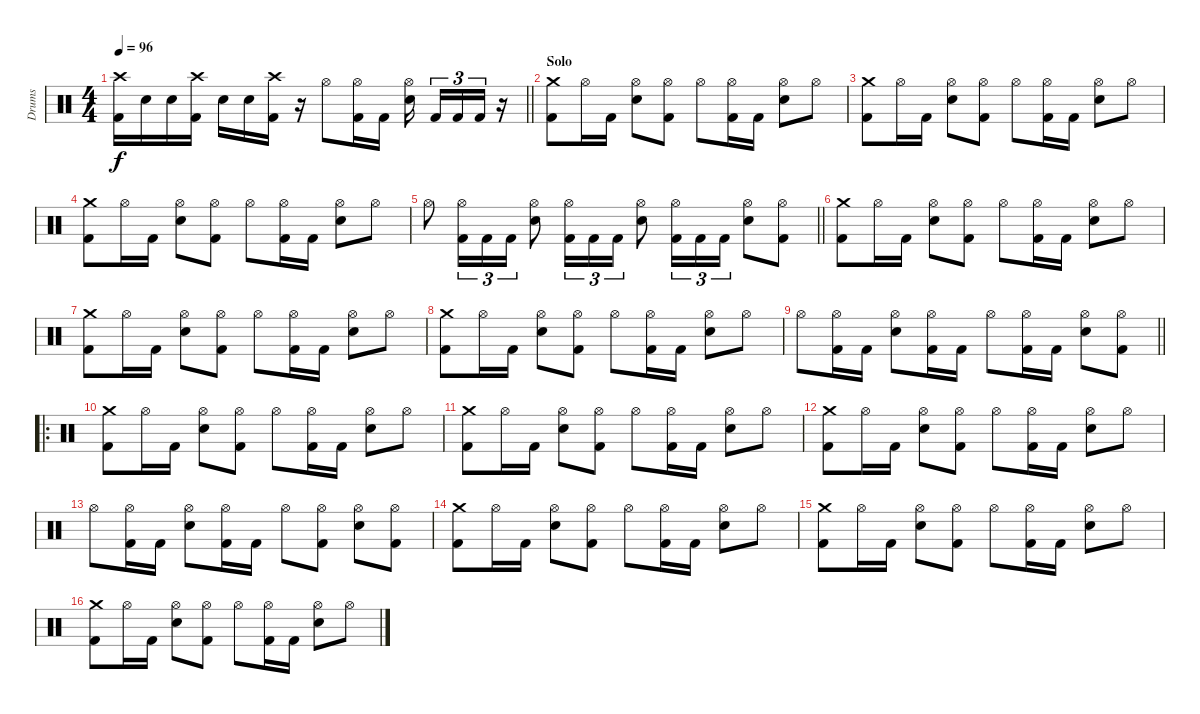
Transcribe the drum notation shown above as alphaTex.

\track ("Drums" "Drums") {instrument percussion}
\staff {score}
\articulation defaults
\ts (4 4)
\tempo 96
\clef neutral
\barLineRight lightlight
\ks c
("Crash high (hit)" "Kick (hit) 2").16{dy f} "Electric Snare (hit)".16 "Electric Snare (hit)".16 ("Crash high (hit)" "Kick (hit) 2").16 "Electric Snare (hit)".16 "Electric Snare (hit)".16 ("Crash high (hit)" "Kick (hit) 2").16 r.16 "Hi-Hat (open)".8 ("Hi-Hat (open)" "Kick (hit) 2").16 "Kick (hit) 2".16 ("Hi-Hat (open)" "Electric Snare (hit)").16{beam splitsecondary} "Kick (hit) 2".16{tu (3 2)} "Kick (hit) 2".16{tu (3 2)} "Kick (hit) 2".16{tu (3 2)} r.16 |
\section ("" "Solo")
("Crash medium (hit)" "Kick (hit) 2").8 "Hi-Hat (open)".16 "Kick (hit) 2".16 ("Hi-Hat (open)" "Electric Snare (hit)").8 ("Hi-Hat (open)" "Kick (hit) 2").8 "Hi-Hat (open)".8 ("Hi-Hat (open)" "Kick (hit) 2").16 "Kick (hit) 2".16 ("Hi-Hat (open)" "Electric Snare (hit)").8 "Hi-Hat (open)".8 |
("Crash medium (hit)" "Kick (hit) 2").8 "Hi-Hat (open)".16 "Kick (hit) 2".16 ("Hi-Hat (open)" "Electric Snare (hit)").8 ("Hi-Hat (open)" "Kick (hit) 2").8 "Hi-Hat (open)".8 ("Hi-Hat (open)" "Kick (hit) 2").16 "Kick (hit) 2".16 ("Hi-Hat (open)" "Electric Snare (hit)").8 "Hi-Hat (open)".8 |
("Crash medium (hit)" "Kick (hit) 2").8 "Hi-Hat (open)".16 "Kick (hit) 2".16 ("Hi-Hat (open)" "Electric Snare (hit)").8 ("Hi-Hat (open)" "Kick (hit) 2").8 "Hi-Hat (open)".8 ("Hi-Hat (open)" "Kick (hit) 2").16 "Kick (hit) 2".16 ("Hi-Hat (open)" "Electric Snare (hit)").8 "Hi-Hat (open)".8 |
\barLineRight lightlight "Hi-Hat (open)".8
("Hi-Hat (open)" "Kick (hit) 2").16{tu (3 2)} "Kick (hit) 2".16{tu (3 2)} "Kick (hit) 2".16{tu (3 2)} ("Hi-Hat (open)" "Electric Snare (hit)").8 ("Hi-Hat (open)" "Kick (hit) 2").16{tu (3 2)} "Kick (hit) 2".16{tu (3 2)} "Kick (hit) 2".16{tu (3 2)} ("Hi-Hat (open)" "Electric Snare (hit)").8 ("Hi-Hat (open)" "Kick (hit) 2").16{tu (3 2)} "Kick (hit) 2".16{tu (3 2)} "Kick (hit) 2".16{tu (3 2)} ("Hi-Hat (open)" "Electric Snare (hit)").8 ("Hi-Hat (open)" "Kick (hit) 2").8 |
("Crash medium (hit)" "Kick (hit) 2").8 "Hi-Hat (open)".16 "Kick (hit) 2".16 ("Hi-Hat (open)" "Electric Snare (hit)").8 ("Hi-Hat (open)" "Kick (hit) 2").8 "Hi-Hat (open)".8 ("Hi-Hat (open)" "Kick (hit) 2").16 "Kick (hit) 2".16 ("Hi-Hat (open)" "Electric Snare (hit)").8 "Hi-Hat (open)".8 |
("Crash medium (hit)" "Kick (hit) 2").8 "Hi-Hat (open)".16 "Kick (hit) 2".16 ("Hi-Hat (open)" "Electric Snare (hit)").8 ("Hi-Hat (open)" "Kick (hit) 2").8 "Hi-Hat (open)".8 ("Hi-Hat (open)" "Kick (hit) 2").16 "Kick (hit) 2".16 ("Hi-Hat (open)" "Electric Snare (hit)").8 "Hi-Hat (open)".8 |
("Crash medium (hit)" "Kick (hit) 2").8 "Hi-Hat (open)".16 "Kick (hit) 2".16 ("Hi-Hat (open)" "Electric Snare (hit)").8 ("Hi-Hat (open)" "Kick (hit) 2").8 "Hi-Hat (open)".8 ("Hi-Hat (open)" "Kick (hit) 2").16 "Kick (hit) 2".16 ("Hi-Hat (open)" "Electric Snare (hit)").8 "Hi-Hat (open)".8 |
\barLineRight lightlight "Hi-Hat (open)".8
("Hi-Hat (open)" "Kick (hit) 2").16 "Kick (hit) 2".16 ("Hi-Hat (open)" "Electric Snare (hit)").8 ("Hi-Hat (open)" "Kick (hit) 2").16 "Kick (hit) 2".16 "Hi-Hat (open)".8 ("Hi-Hat (open)" "Kick (hit) 2").16 "Kick (hit) 2".16 ("Hi-Hat (open)" "Electric Snare (hit)").8 ("Hi-Hat (open)" "Kick (hit) 2").8 |
\ro
("Crash medium (hit)" "Kick (hit) 2").8 "Hi-Hat (open)".16 "Kick (hit) 2".16 ("Hi-Hat (open)" "Electric Snare (hit)").8 ("Hi-Hat (open)" "Kick (hit) 2").8 "Hi-Hat (open)".8 ("Hi-Hat (open)" "Kick (hit) 2").16 "Kick (hit) 2".16 ("Hi-Hat (open)" "Electric Snare (hit)").8 "Hi-Hat (open)".8 |
("Crash medium (hit)" "Kick (hit) 2").8 "Hi-Hat (open)".16 "Kick (hit) 2".16 ("Hi-Hat (open)" "Electric Snare (hit)").8 ("Hi-Hat (open)" "Kick (hit) 2").8 "Hi-Hat (open)".8 ("Hi-Hat (open)" "Kick (hit) 2").16 "Kick (hit) 2".16 ("Hi-Hat (open)" "Electric Snare (hit)").8 "Hi-Hat (open)".8 |
("Crash medium (hit)" "Kick (hit) 2").8 "Hi-Hat (open)".16 "Kick (hit) 2".16 ("Hi-Hat (open)" "Electric Snare (hit)").8 ("Hi-Hat (open)" "Kick (hit) 2").8 "Hi-Hat (open)".8 ("Hi-Hat (open)" "Kick (hit) 2").16 "Kick (hit) 2".16 ("Hi-Hat (open)" "Electric Snare (hit)").8 "Hi-Hat (open)".8 |
"Hi-Hat (open)".8 ("Hi-Hat (open)" "Kick (hit) 2").16 "Kick (hit) 2".16 ("Hi-Hat (open)" "Electric Snare (hit)").8 ("Hi-Hat (open)" "Kick (hit) 2").16 "Kick (hit) 2".16 "Hi-Hat (open)".8 ("Hi-Hat (open)" "Kick (hit) 2").8 ("Hi-Hat (open)" "Electric Snare (hit)").8 ("Hi-Hat (open)" "Kick (hit) 2").8 |
("Crash medium (hit)" "Kick (hit) 2").8 "Hi-Hat (open)".16 "Kick (hit) 2".16 ("Hi-Hat (open)" "Electric Snare (hit)").8 ("Hi-Hat (open)" "Kick (hit) 2").8 "Hi-Hat (open)".8 ("Hi-Hat (open)" "Kick (hit) 2").16 "Kick (hit) 2".16 ("Hi-Hat (open)" "Electric Snare (hit)").8 "Hi-Hat (open)".8 |
("Crash medium (hit)" "Kick (hit) 2").8 "Hi-Hat (open)".16 "Kick (hit) 2".16 ("Hi-Hat (open)" "Electric Snare (hit)").8 ("Hi-Hat (open)" "Kick (hit) 2").8 "Hi-Hat (open)".8 ("Hi-Hat (open)" "Kick (hit) 2").16 "Kick (hit) 2".16 ("Hi-Hat (open)" "Electric Snare (hit)").8 "Hi-Hat (open)".8 |
("Crash medium (hit)" "Kick (hit) 2").8 "Hi-Hat (open)".16 "Kick (hit) 2".16 ("Hi-Hat (open)" "Electric Snare (hit)").8 ("Hi-Hat (open)" "Kick (hit) 2").8 "Hi-Hat (open)".8 ("Hi-Hat (open)" "Kick (hit) 2").16 "Kick (hit) 2".16 ("Hi-Hat (open)" "Electric Snare (hit)").8 "Hi-Hat (open)".8
